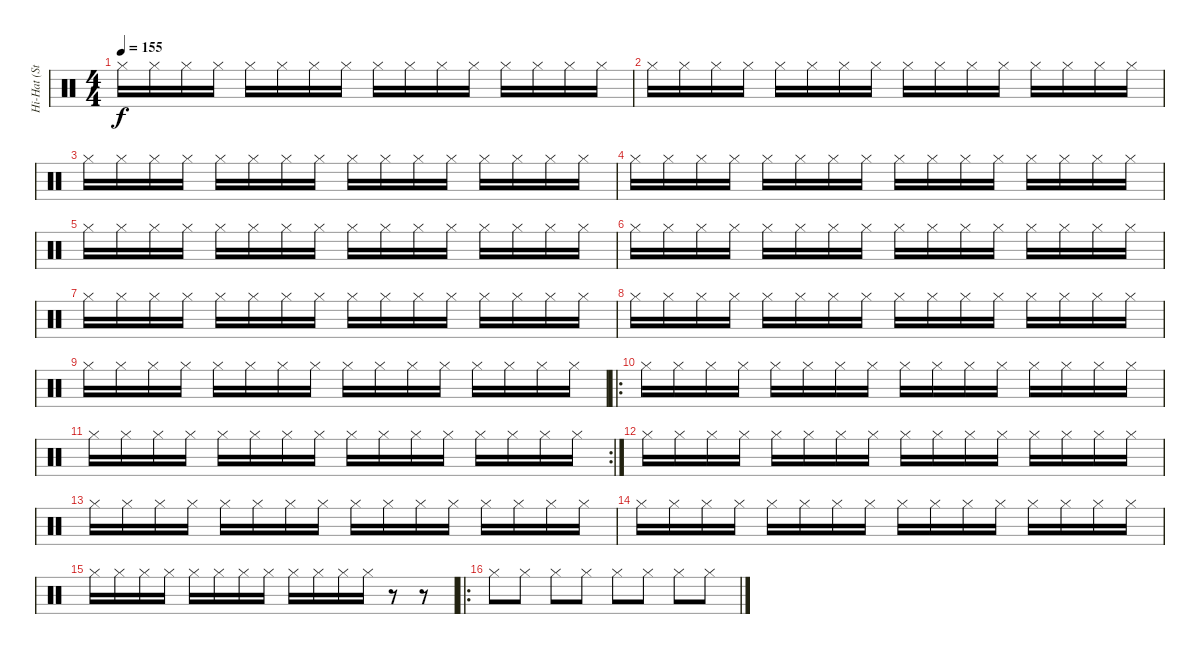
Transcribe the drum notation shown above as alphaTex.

\track ("Hi-Hat (Stephen Morris)" "Hi-Hat (St") {instrument percussion}
\staff {score}
\articulation defaults
\ts (4 4)
\tempo 155
\clef neutral
\ks c "Hi-Hat (closed)".16{dy f} "Hi-Hat (closed)".16 "Hi-Hat (closed)".16 "Hi-Hat (closed)".16 "Hi-Hat (closed)".16 "Hi-Hat (closed)".16 "Hi-Hat (closed)".16 "Hi-Hat (closed)".16 "Hi-Hat (closed)".16 "Hi-Hat (closed)".16 "Hi-Hat (closed)".16 "Hi-Hat (closed)".16 "Hi-Hat (closed)".16 "Hi-Hat (closed)".16 "Hi-Hat (closed)".16 "Hi-Hat (closed)".16
|
"Hi-Hat (closed)".16 "Hi-Hat (closed)".16 "Hi-Hat (closed)".16 "Hi-Hat (closed)".16 "Hi-Hat (closed)".16 "Hi-Hat (closed)".16 "Hi-Hat (closed)".16 "Hi-Hat (closed)".16 "Hi-Hat (closed)".16 "Hi-Hat (closed)".16 "Hi-Hat (closed)".16 "Hi-Hat (closed)".16 "Hi-Hat (closed)".16 "Hi-Hat (closed)".16 "Hi-Hat (closed)".16 "Hi-Hat (closed)".16 |
"Hi-Hat (closed)".16 "Hi-Hat (closed)".16 "Hi-Hat (closed)".16 "Hi-Hat (closed)".16 "Hi-Hat (closed)".16 "Hi-Hat (closed)".16 "Hi-Hat (closed)".16 "Hi-Hat (closed)".16 "Hi-Hat (closed)".16 "Hi-Hat (closed)".16 "Hi-Hat (closed)".16 "Hi-Hat (closed)".16 "Hi-Hat (closed)".16 "Hi-Hat (closed)".16 "Hi-Hat (closed)".16 "Hi-Hat (closed)".16 |
"Hi-Hat (closed)".16 "Hi-Hat (closed)".16 "Hi-Hat (closed)".16 "Hi-Hat (closed)".16 "Hi-Hat (closed)".16 "Hi-Hat (closed)".16 "Hi-Hat (closed)".16 "Hi-Hat (closed)".16 "Hi-Hat (closed)".16 "Hi-Hat (closed)".16 "Hi-Hat (closed)".16 "Hi-Hat (closed)".16 "Hi-Hat (closed)".16 "Hi-Hat (closed)".16 "Hi-Hat (closed)".16 "Hi-Hat (closed)".16 |
"Hi-Hat (closed)".16 "Hi-Hat (closed)".16 "Hi-Hat (closed)".16 "Hi-Hat (closed)".16 "Hi-Hat (closed)".16 "Hi-Hat (closed)".16 "Hi-Hat (closed)".16 "Hi-Hat (closed)".16 "Hi-Hat (closed)".16 "Hi-Hat (closed)".16 "Hi-Hat (closed)".16 "Hi-Hat (closed)".16 "Hi-Hat (closed)".16 "Hi-Hat (closed)".16 "Hi-Hat (closed)".16 "Hi-Hat (closed)".16 |
"Hi-Hat (closed)".16 "Hi-Hat (closed)".16 "Hi-Hat (closed)".16 "Hi-Hat (closed)".16 "Hi-Hat (closed)".16 "Hi-Hat (closed)".16 "Hi-Hat (closed)".16 "Hi-Hat (closed)".16 "Hi-Hat (closed)".16 "Hi-Hat (closed)".16 "Hi-Hat (closed)".16 "Hi-Hat (closed)".16 "Hi-Hat (closed)".16 "Hi-Hat (closed)".16 "Hi-Hat (closed)".16 "Hi-Hat (closed)".16 |
"Hi-Hat (closed)".16 "Hi-Hat (closed)".16 "Hi-Hat (closed)".16 "Hi-Hat (closed)".16 "Hi-Hat (closed)".16 "Hi-Hat (closed)".16 "Hi-Hat (closed)".16 "Hi-Hat (closed)".16 "Hi-Hat (closed)".16 "Hi-Hat (closed)".16 "Hi-Hat (closed)".16 "Hi-Hat (closed)".16 "Hi-Hat (closed)".16 "Hi-Hat (closed)".16 "Hi-Hat (closed)".16 "Hi-Hat (closed)".16 |
"Hi-Hat (closed)".16 "Hi-Hat (closed)".16 "Hi-Hat (closed)".16 "Hi-Hat (closed)".16 "Hi-Hat (closed)".16 "Hi-Hat (closed)".16 "Hi-Hat (closed)".16 "Hi-Hat (closed)".16 "Hi-Hat (closed)".16 "Hi-Hat (closed)".16 "Hi-Hat (closed)".16 "Hi-Hat (closed)".16 "Hi-Hat (closed)".16 "Hi-Hat (closed)".16 "Hi-Hat (closed)".16 "Hi-Hat (closed)".16 |
"Hi-Hat (closed)".16 "Hi-Hat (closed)".16 "Hi-Hat (closed)".16 "Hi-Hat (closed)".16 "Hi-Hat (closed)".16 "Hi-Hat (closed)".16 "Hi-Hat (closed)".16 "Hi-Hat (closed)".16 "Hi-Hat (closed)".16 "Hi-Hat (closed)".16 "Hi-Hat (closed)".16 "Hi-Hat (closed)".16 "Hi-Hat (closed)".16 "Hi-Hat (closed)".16 "Hi-Hat (closed)".16 "Hi-Hat (closed)".16 |
\ro "Hi-Hat (closed)".16 "Hi-Hat (closed)".16 "Hi-Hat (closed)".16 "Hi-Hat (closed)".16 "Hi-Hat (closed)".16 "Hi-Hat (closed)".16 "Hi-Hat (closed)".16 "Hi-Hat (closed)".16 "Hi-Hat (closed)".16 "Hi-Hat (closed)".16 "Hi-Hat (closed)".16 "Hi-Hat (closed)".16 "Hi-Hat (closed)".16 "Hi-Hat (closed)".16 "Hi-Hat (closed)".16 "Hi-Hat (closed)".16
|
\rc 2 "Hi-Hat (closed)".16 "Hi-Hat (closed)".16 "Hi-Hat (closed)".16 "Hi-Hat (closed)".16 "Hi-Hat (closed)".16 "Hi-Hat (closed)".16 "Hi-Hat (closed)".16 "Hi-Hat (closed)".16 "Hi-Hat (closed)".16 "Hi-Hat (closed)".16 "Hi-Hat (closed)".16 "Hi-Hat (closed)".16 "Hi-Hat (closed)".16 "Hi-Hat (closed)".16 "Hi-Hat (closed)".16 "Hi-Hat (closed)".16
|
"Hi-Hat (closed)".16 "Hi-Hat (closed)".16 "Hi-Hat (closed)".16 "Hi-Hat (closed)".16 "Hi-Hat (closed)".16 "Hi-Hat (closed)".16 "Hi-Hat (closed)".16 "Hi-Hat (closed)".16 "Hi-Hat (closed)".16 "Hi-Hat (closed)".16 "Hi-Hat (closed)".16 "Hi-Hat (closed)".16 "Hi-Hat (closed)".16 "Hi-Hat (closed)".16 "Hi-Hat (closed)".16 "Hi-Hat (closed)".16 |
"Hi-Hat (closed)".16 "Hi-Hat (closed)".16 "Hi-Hat (closed)".16 "Hi-Hat (closed)".16 "Hi-Hat (closed)".16 "Hi-Hat (closed)".16 "Hi-Hat (closed)".16 "Hi-Hat (closed)".16 "Hi-Hat (closed)".16 "Hi-Hat (closed)".16 "Hi-Hat (closed)".16 "Hi-Hat (closed)".16 "Hi-Hat (closed)".16 "Hi-Hat (closed)".16 "Hi-Hat (closed)".16 "Hi-Hat (closed)".16 |
"Hi-Hat (closed)".16 "Hi-Hat (closed)".16 "Hi-Hat (closed)".16 "Hi-Hat (closed)".16 "Hi-Hat (closed)".16 "Hi-Hat (closed)".16 "Hi-Hat (closed)".16 "Hi-Hat (closed)".16 "Hi-Hat (closed)".16 "Hi-Hat (closed)".16 "Hi-Hat (closed)".16 "Hi-Hat (closed)".16 "Hi-Hat (closed)".16 "Hi-Hat (closed)".16 "Hi-Hat (closed)".16 "Hi-Hat (closed)".16 |
"Hi-Hat (closed)".16 "Hi-Hat (closed)".16 "Hi-Hat (closed)".16 "Hi-Hat (closed)".16 "Hi-Hat (closed)".16 "Hi-Hat (closed)".16 "Hi-Hat (closed)".16 "Hi-Hat (closed)".16 "Hi-Hat (closed)".16 "Hi-Hat (closed)".16 "Hi-Hat (closed)".16 "Hi-Hat (closed)".16 r.8 r.8 |
\ro "Hi-Hat (closed)".8 "Hi-Hat (closed)".8 "Hi-Hat (closed)".8 "Hi-Hat (closed)".8 "Hi-Hat (closed)".8 "Hi-Hat (closed)".8 "Hi-Hat (closed)".8 "Hi-Hat (closed)".8
